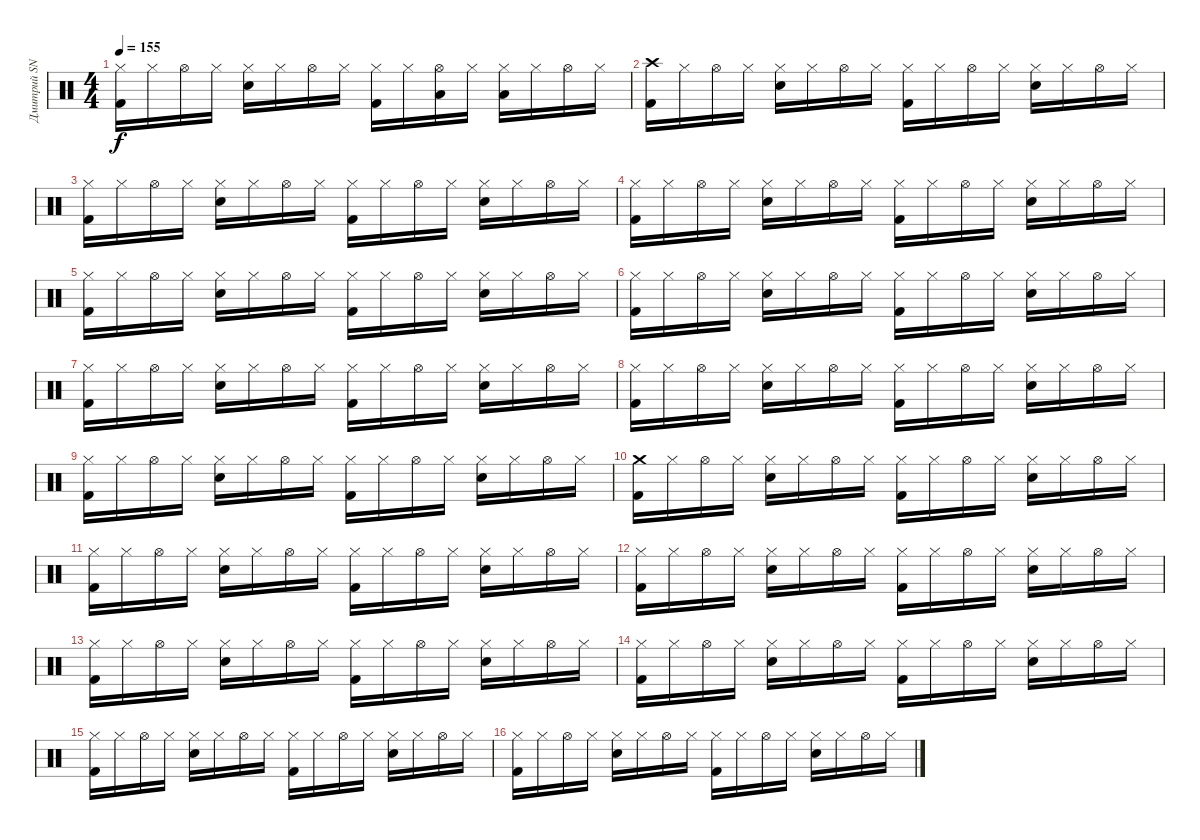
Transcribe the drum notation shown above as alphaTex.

\track ("Дмитрий SNAKE Хакимов" "Дмитрий SN") {instrument percussion}
\staff {score}
\articulation defaults
\ts (4 4)
\tempo 155
\clef neutral
\ks c
("Hi-Hat (closed)" "Kick (hit) 2").16{dy f} "Hi-Hat (closed)".16 "Hi-Hat (open)".16 "Hi-Hat (closed)".16 ("Hi-Hat (closed)" "Snare (hit) 2").16 "Hi-Hat (closed)".16 "Hi-Hat (open)".16 "Hi-Hat (closed)".16 ("Hi-Hat (closed)" "Kick (hit) 2").16 "Hi-Hat (closed)".16 ("Hi-Hat (open)" "Low Tom (hit)").16 "Hi-Hat (closed)".16 ("Hi-Hat (closed)" "Low Tom (hit)").16 "Hi-Hat (closed)".16 "Hi-Hat (open)".16 "Hi-Hat (closed)".16 |
("Crash high (hit)" "Kick (hit) 2").16 "Hi-Hat (closed)".16 "Hi-Hat (open)".16 "Hi-Hat (closed)".16 ("Hi-Hat (closed)" "Snare (hit) 2").16 "Hi-Hat (closed)".16 "Hi-Hat (open)".16 "Hi-Hat (closed)".16 ("Hi-Hat (closed)" "Kick (hit) 2").16 "Hi-Hat (closed)".16 "Hi-Hat (open)".16 "Hi-Hat (closed)".16 ("Hi-Hat (closed)" "Snare (hit) 2").16 "Hi-Hat (closed)".16 "Hi-Hat (open)".16 "Hi-Hat (closed)".16 |
("Hi-Hat (closed)" "Kick (hit) 2").16 "Hi-Hat (closed)".16 "Hi-Hat (open)".16 "Hi-Hat (closed)".16 ("Hi-Hat (closed)" "Snare (hit) 2").16 "Hi-Hat (closed)".16 "Hi-Hat (open)".16 "Hi-Hat (closed)".16 ("Hi-Hat (closed)" "Kick (hit) 2").16 "Hi-Hat (closed)".16 "Hi-Hat (open)".16 "Hi-Hat (closed)".16 ("Hi-Hat (closed)" "Snare (hit) 2").16 "Hi-Hat (closed)".16 "Hi-Hat (open)".16 "Hi-Hat (closed)".16 |
("Hi-Hat (closed)" "Kick (hit) 2").16 "Hi-Hat (closed)".16 "Hi-Hat (open)".16 "Hi-Hat (closed)".16 ("Hi-Hat (closed)" "Snare (hit) 2").16 "Hi-Hat (closed)".16 "Hi-Hat (open)".16 "Hi-Hat (closed)".16 ("Hi-Hat (closed)" "Kick (hit) 2").16 "Hi-Hat (closed)".16 "Hi-Hat (open)".16 "Hi-Hat (closed)".16 ("Hi-Hat (closed)" "Snare (hit) 2").16 "Hi-Hat (closed)".16 "Hi-Hat (open)".16 "Hi-Hat (closed)".16 |
("Hi-Hat (closed)" "Kick (hit) 2").16 "Hi-Hat (closed)".16 "Hi-Hat (open)".16 "Hi-Hat (closed)".16 ("Hi-Hat (closed)" "Snare (hit) 2").16 "Hi-Hat (closed)".16 "Hi-Hat (open)".16 "Hi-Hat (closed)".16 ("Hi-Hat (closed)" "Kick (hit) 2").16 "Hi-Hat (closed)".16 "Hi-Hat (open)".16 "Hi-Hat (closed)".16 ("Hi-Hat (closed)" "Snare (hit) 2").16 "Hi-Hat (closed)".16 "Hi-Hat (open)".16 "Hi-Hat (closed)".16 |
("Hi-Hat (closed)" "Kick (hit) 2").16 "Hi-Hat (closed)".16 "Hi-Hat (open)".16 "Hi-Hat (closed)".16 ("Hi-Hat (closed)" "Snare (hit) 2").16 "Hi-Hat (closed)".16 "Hi-Hat (open)".16 "Hi-Hat (closed)".16 ("Hi-Hat (closed)" "Kick (hit) 2").16 "Hi-Hat (closed)".16 "Hi-Hat (open)".16 "Hi-Hat (closed)".16 ("Hi-Hat (closed)" "Snare (hit) 2").16 "Hi-Hat (closed)".16 "Hi-Hat (open)".16 "Hi-Hat (closed)".16 |
("Hi-Hat (closed)" "Kick (hit) 2").16 "Hi-Hat (closed)".16 "Hi-Hat (open)".16 "Hi-Hat (closed)".16 ("Hi-Hat (closed)" "Snare (hit) 2").16 "Hi-Hat (closed)".16 "Hi-Hat (open)".16 "Hi-Hat (closed)".16 ("Hi-Hat (closed)" "Kick (hit) 2").16 "Hi-Hat (closed)".16 "Hi-Hat (open)".16 "Hi-Hat (closed)".16 ("Hi-Hat (closed)" "Snare (hit) 2").16 "Hi-Hat (closed)".16 "Hi-Hat (open)".16 "Hi-Hat (closed)".16 |
("Hi-Hat (closed)" "Kick (hit) 2").16 "Hi-Hat (closed)".16 "Hi-Hat (open)".16 "Hi-Hat (closed)".16 ("Hi-Hat (closed)" "Snare (hit) 2").16 "Hi-Hat (closed)".16 "Hi-Hat (open)".16 "Hi-Hat (closed)".16 ("Hi-Hat (closed)" "Kick (hit) 2").16 "Hi-Hat (closed)".16 "Hi-Hat (open)".16 "Hi-Hat (closed)".16 ("Hi-Hat (closed)" "Snare (hit) 2").16 "Hi-Hat (closed)".16 "Hi-Hat (open)".16 "Hi-Hat (closed)".16 |
("Hi-Hat (closed)" "Kick (hit) 2").16 "Hi-Hat (closed)".16 "Hi-Hat (open)".16 "Hi-Hat (closed)".16 ("Hi-Hat (closed)" "Snare (hit) 2").16 "Hi-Hat (closed)".16 "Hi-Hat (open)".16 "Hi-Hat (closed)".16 ("Hi-Hat (closed)" "Kick (hit) 2").16 "Hi-Hat (closed)".16 "Hi-Hat (open)".16 "Hi-Hat (closed)".16 ("Hi-Hat (closed)" "Snare (hit) 2").16 "Hi-Hat (closed)".16 "Hi-Hat (open)".16 "Hi-Hat (closed)".16 |
("Crash medium (hit)" "Kick (hit) 2").16 "Hi-Hat (closed)".16 "Hi-Hat (open)".16 "Hi-Hat (closed)".16 ("Hi-Hat (closed)" "Snare (hit) 2").16 "Hi-Hat (closed)".16 "Hi-Hat (open)".16 "Hi-Hat (closed)".16 ("Hi-Hat (closed)" "Kick (hit) 2").16 "Hi-Hat (closed)".16 "Hi-Hat (open)".16 "Hi-Hat (closed)".16 ("Hi-Hat (closed)" "Snare (hit) 2").16 "Hi-Hat (closed)".16 "Hi-Hat (open)".16 "Hi-Hat (closed)".16 |
("Hi-Hat (closed)" "Kick (hit) 2").16 "Hi-Hat (closed)".16 "Hi-Hat (open)".16 "Hi-Hat (closed)".16 ("Hi-Hat (closed)" "Snare (hit) 2").16 "Hi-Hat (closed)".16 "Hi-Hat (open)".16 "Hi-Hat (closed)".16 ("Hi-Hat (closed)" "Kick (hit) 2").16 "Hi-Hat (closed)".16 "Hi-Hat (open)".16 "Hi-Hat (closed)".16 ("Hi-Hat (closed)" "Snare (hit) 2").16 "Hi-Hat (closed)".16 "Hi-Hat (open)".16 "Hi-Hat (closed)".16 |
("Hi-Hat (closed)" "Kick (hit) 2").16 "Hi-Hat (closed)".16 "Hi-Hat (open)".16 "Hi-Hat (closed)".16 ("Hi-Hat (closed)" "Snare (hit) 2").16 "Hi-Hat (closed)".16 "Hi-Hat (open)".16 "Hi-Hat (closed)".16 ("Hi-Hat (closed)" "Kick (hit) 2").16 "Hi-Hat (closed)".16 "Hi-Hat (open)".16 "Hi-Hat (closed)".16 ("Hi-Hat (closed)" "Snare (hit) 2").16 "Hi-Hat (closed)".16 "Hi-Hat (open)".16 "Hi-Hat (closed)".16 |
("Hi-Hat (closed)" "Kick (hit) 2").16 "Hi-Hat (closed)".16 "Hi-Hat (open)".16 "Hi-Hat (closed)".16 ("Hi-Hat (closed)" "Snare (hit) 2").16 "Hi-Hat (closed)".16 "Hi-Hat (open)".16 "Hi-Hat (closed)".16 ("Hi-Hat (closed)" "Kick (hit) 2").16 "Hi-Hat (closed)".16 "Hi-Hat (open)".16 "Hi-Hat (closed)".16 ("Hi-Hat (closed)" "Snare (hit) 2").16 "Hi-Hat (closed)".16 "Hi-Hat (open)".16 "Hi-Hat (closed)".16 |
("Hi-Hat (closed)" "Kick (hit) 2").16 "Hi-Hat (closed)".16 "Hi-Hat (open)".16 "Hi-Hat (closed)".16 ("Hi-Hat (closed)" "Snare (hit) 2").16 "Hi-Hat (closed)".16 "Hi-Hat (open)".16 "Hi-Hat (closed)".16 ("Hi-Hat (closed)" "Kick (hit) 2").16 "Hi-Hat (closed)".16 "Hi-Hat (open)".16 "Hi-Hat (closed)".16 ("Hi-Hat (closed)" "Snare (hit) 2").16 "Hi-Hat (closed)".16 "Hi-Hat (open)".16 "Hi-Hat (closed)".16 |
("Hi-Hat (closed)" "Kick (hit) 2").16 "Hi-Hat (closed)".16 "Hi-Hat (open)".16 "Hi-Hat (closed)".16 ("Hi-Hat (closed)" "Snare (hit) 2").16 "Hi-Hat (closed)".16 "Hi-Hat (open)".16 "Hi-Hat (closed)".16 ("Hi-Hat (closed)" "Kick (hit) 2").16 "Hi-Hat (closed)".16 "Hi-Hat (open)".16 "Hi-Hat (closed)".16 ("Hi-Hat (closed)" "Snare (hit) 2").16 "Hi-Hat (closed)".16 "Hi-Hat (open)".16 "Hi-Hat (closed)".16 |
("Hi-Hat (closed)" "Kick (hit) 2").16 "Hi-Hat (closed)".16 "Hi-Hat (open)".16 "Hi-Hat (closed)".16 ("Hi-Hat (closed)" "Snare (hit) 2").16 "Hi-Hat (closed)".16 "Hi-Hat (open)".16 "Hi-Hat (closed)".16 ("Hi-Hat (closed)" "Kick (hit) 2").16 "Hi-Hat (closed)".16 "Hi-Hat (open)".16 "Hi-Hat (closed)".16 ("Hi-Hat (closed)" "Snare (hit) 2").16 "Hi-Hat (closed)".16 "Hi-Hat (open)".16 "Hi-Hat (closed)".16
